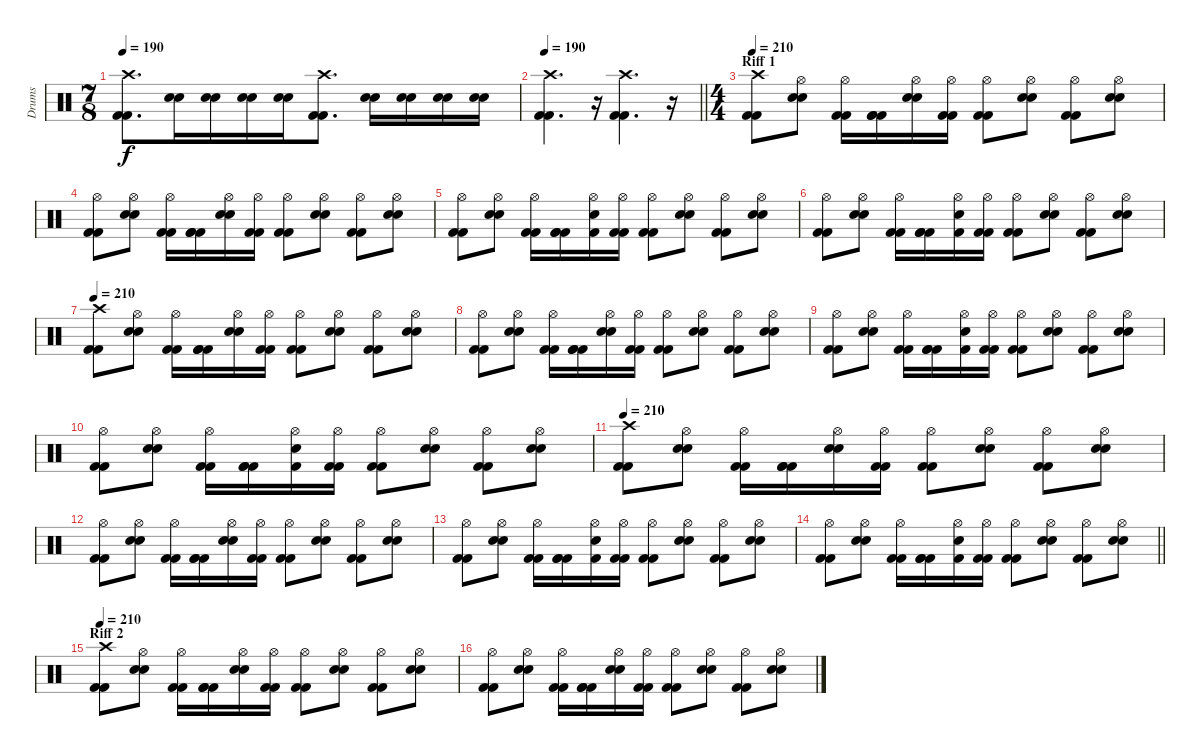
\track ("Drums" "Drums") {instrument percussion}
\staff {score}
\articulation defaults
\ts (7 8)
\tempo 190
\clef neutral
\ks c
("Crash high (hit)" "Kick (hit) 2" "Kick (hit) 2").8{d dy f} ("Snare (hit) 2" "Snare (hit) 2").16 ("Snare (hit) 2" "Snare (hit) 2").16 ("Snare (hit) 2" "Snare (hit) 2").16 ("Snare (hit) 2" "Snare (hit) 2").16 ("Crash high (hit)" "Kick (hit) 2" "Kick (hit) 2").8{d} ("Snare (hit) 2" "Snare (hit) 2").16 ("Snare (hit) 2" "Snare (hit) 2").16 ("Snare (hit) 2" "Snare (hit) 2").16 ("Snare (hit) 2" "Snare (hit) 2").16 |
\tempo 190
\barLineRight lightlight
("Crash high (hit)" "Kick (hit) 2" "Kick (hit) 2").4{d} r.16 ("Crash high (hit)" "Kick (hit) 2" "Kick (hit) 2").4{d} r.16 |
\ts (4 4)
\section ("" "Riff 1")
\tempo 210
("Crash high (hit)" "Kick (hit) 2" "Kick (hit) 2").8 ("Hi-Hat (open)" "Snare (hit) 2" "Snare (hit) 2").8 ("Hi-Hat (open)" "Kick (hit) 2" "Kick (hit) 2").16 ("Kick (hit) 2" "Kick (hit) 2" "Kick (hit) 2").16 ("Hi-Hat (open)" "Snare (hit) 2" "Snare (hit) 2").16 ("Hi-Hat (open)" "Kick (hit) 2" "Kick (hit) 2").16 ("Hi-Hat (open)" "Kick (hit) 2" "Kick (hit) 2").8 ("Hi-Hat (open)" "Snare (hit) 2" "Snare (hit) 2").8 ("Hi-Hat (open)" "Kick (hit) 2" "Kick (hit) 2").8 ("Hi-Hat (open)" "Snare (hit) 2" "Snare (hit) 2").8 |
("Hi-Hat (open)" "Kick (hit) 2" "Kick (hit) 2").8 ("Hi-Hat (open)" "Snare (hit) 2" "Snare (hit) 2").8 ("Hi-Hat (open)" "Kick (hit) 2" "Kick (hit) 2").16 ("Kick (hit) 2" "Kick (hit) 2" "Kick (hit) 2").16 ("Hi-Hat (open)" "Snare (hit) 2" "Snare (hit) 2").16 ("Hi-Hat (open)" "Kick (hit) 2" "Kick (hit) 2").16 ("Hi-Hat (open)" "Kick (hit) 2" "Kick (hit) 2").8 ("Hi-Hat (open)" "Snare (hit) 2" "Snare (hit) 2").8 ("Hi-Hat (open)" "Kick (hit) 2" "Kick (hit) 2").8 ("Hi-Hat (open)" "Snare (hit) 2" "Snare (hit) 2").8 |
("Hi-Hat (open)" "Kick (hit) 2" "Kick (hit) 2").8 ("Hi-Hat (open)" "Snare (hit) 2" "Snare (hit) 2").8 ("Hi-Hat (open)" "Kick (hit) 2" "Kick (hit) 2").16 ("Kick (hit) 2" "Kick (hit) 2" "Kick (hit) 2").16 ("Hi-Hat (open)" "Snare (hit) 2" "Kick (hit) 2").16 ("Hi-Hat (open)" "Kick (hit) 2" "Kick (hit) 2").16 ("Hi-Hat (open)" "Kick (hit) 2" "Kick (hit) 2").8 ("Hi-Hat (open)" "Snare (hit) 2" "Snare (hit) 2").8 ("Hi-Hat (open)" "Kick (hit) 2" "Kick (hit) 2").8 ("Hi-Hat (open)" "Snare (hit) 2" "Snare (hit) 2").8 |
("Hi-Hat (open)" "Kick (hit) 2" "Kick (hit) 2").8 ("Hi-Hat (open)" "Snare (hit) 2" "Snare (hit) 2").8 ("Hi-Hat (open)" "Kick (hit) 2" "Kick (hit) 2").16 ("Kick (hit) 2" "Kick (hit) 2" "Kick (hit) 2").16 ("Hi-Hat (open)" "Snare (hit) 2" "Kick (hit) 2").16 ("Hi-Hat (open)" "Kick (hit) 2" "Kick (hit) 2").16 ("Hi-Hat (open)" "Kick (hit) 2" "Kick (hit) 2").8 ("Hi-Hat (open)" "Snare (hit) 2" "Snare (hit) 2").8 ("Hi-Hat (open)" "Kick (hit) 2" "Kick (hit) 2").8 ("Hi-Hat (open)" "Snare (hit) 2" "Snare (hit) 2").8 |
\tempo 210
("Crash high (hit)" "Kick (hit) 2" "Kick (hit) 2").8 ("Hi-Hat (open)" "Snare (hit) 2" "Snare (hit) 2").8 ("Hi-Hat (open)" "Kick (hit) 2" "Kick (hit) 2").16 ("Kick (hit) 2" "Kick (hit) 2" "Kick (hit) 2").16 ("Hi-Hat (open)" "Snare (hit) 2" "Snare (hit) 2").16 ("Hi-Hat (open)" "Kick (hit) 2" "Kick (hit) 2").16 ("Hi-Hat (open)" "Kick (hit) 2" "Kick (hit) 2").8 ("Hi-Hat (open)" "Snare (hit) 2" "Snare (hit) 2").8 ("Hi-Hat (open)" "Kick (hit) 2" "Kick (hit) 2").8 ("Hi-Hat (open)" "Snare (hit) 2" "Snare (hit) 2").8 |
("Hi-Hat (open)" "Kick (hit) 2" "Kick (hit) 2").8 ("Hi-Hat (open)" "Snare (hit) 2" "Snare (hit) 2").8 ("Hi-Hat (open)" "Kick (hit) 2" "Kick (hit) 2").16 ("Kick (hit) 2" "Kick (hit) 2" "Kick (hit) 2").16 ("Hi-Hat (open)" "Snare (hit) 2" "Snare (hit) 2").16 ("Hi-Hat (open)" "Kick (hit) 2" "Kick (hit) 2").16 ("Hi-Hat (open)" "Kick (hit) 2" "Kick (hit) 2").8 ("Hi-Hat (open)" "Snare (hit) 2" "Snare (hit) 2").8 ("Hi-Hat (open)" "Kick (hit) 2" "Kick (hit) 2").8 ("Hi-Hat (open)" "Snare (hit) 2" "Snare (hit) 2").8 |
("Hi-Hat (open)" "Kick (hit) 2" "Kick (hit) 2").8 ("Hi-Hat (open)" "Snare (hit) 2" "Snare (hit) 2").8 ("Hi-Hat (open)" "Kick (hit) 2" "Kick (hit) 2").16 ("Kick (hit) 2" "Kick (hit) 2" "Kick (hit) 2").16 ("Hi-Hat (open)" "Snare (hit) 2" "Kick (hit) 2").16 ("Hi-Hat (open)" "Kick (hit) 2" "Kick (hit) 2").16 ("Hi-Hat (open)" "Kick (hit) 2" "Kick (hit) 2").8 ("Hi-Hat (open)" "Snare (hit) 2" "Snare (hit) 2").8 ("Hi-Hat (open)" "Kick (hit) 2" "Kick (hit) 2").8 ("Hi-Hat (open)" "Snare (hit) 2" "Snare (hit) 2").8 |
("Hi-Hat (open)" "Kick (hit) 2" "Kick (hit) 2").8 ("Hi-Hat (open)" "Snare (hit) 2" "Snare (hit) 2").8 ("Hi-Hat (open)" "Kick (hit) 2" "Kick (hit) 2").16 ("Kick (hit) 2" "Kick (hit) 2" "Kick (hit) 2").16 ("Hi-Hat (open)" "Snare (hit) 2" "Kick (hit) 2").16 ("Hi-Hat (open)" "Kick (hit) 2" "Kick (hit) 2").16 ("Hi-Hat (open)" "Kick (hit) 2" "Kick (hit) 2").8 ("Hi-Hat (open)" "Snare (hit) 2" "Snare (hit) 2").8 ("Hi-Hat (open)" "Kick (hit) 2" "Kick (hit) 2").8 ("Hi-Hat (open)" "Snare (hit) 2" "Snare (hit) 2").8 |
\tempo 210
("Crash high (hit)" "Kick (hit) 2" "Kick (hit) 2").8 ("Hi-Hat (open)" "Snare (hit) 2" "Snare (hit) 2").8 ("Hi-Hat (open)" "Kick (hit) 2" "Kick (hit) 2").16 ("Kick (hit) 2" "Kick (hit) 2" "Kick (hit) 2").16 ("Hi-Hat (open)" "Snare (hit) 2" "Snare (hit) 2").16 ("Hi-Hat (open)" "Kick (hit) 2" "Kick (hit) 2").16 ("Hi-Hat (open)" "Kick (hit) 2" "Kick (hit) 2").8 ("Hi-Hat (open)" "Snare (hit) 2" "Snare (hit) 2").8 ("Hi-Hat (open)" "Kick (hit) 2" "Kick (hit) 2").8 ("Hi-Hat (open)" "Snare (hit) 2" "Snare (hit) 2").8 |
("Hi-Hat (open)" "Kick (hit) 2" "Kick (hit) 2").8 ("Hi-Hat (open)" "Snare (hit) 2" "Snare (hit) 2").8 ("Hi-Hat (open)" "Kick (hit) 2" "Kick (hit) 2").16 ("Kick (hit) 2" "Kick (hit) 2" "Kick (hit) 2").16 ("Hi-Hat (open)" "Snare (hit) 2" "Snare (hit) 2").16 ("Hi-Hat (open)" "Kick (hit) 2" "Kick (hit) 2").16 ("Hi-Hat (open)" "Kick (hit) 2" "Kick (hit) 2").8 ("Hi-Hat (open)" "Snare (hit) 2" "Snare (hit) 2").8 ("Hi-Hat (open)" "Kick (hit) 2" "Kick (hit) 2").8 ("Hi-Hat (open)" "Snare (hit) 2" "Snare (hit) 2").8 |
("Hi-Hat (open)" "Kick (hit) 2" "Kick (hit) 2").8 ("Hi-Hat (open)" "Snare (hit) 2" "Snare (hit) 2").8 ("Hi-Hat (open)" "Kick (hit) 2" "Kick (hit) 2").16 ("Kick (hit) 2" "Kick (hit) 2" "Kick (hit) 2").16 ("Hi-Hat (open)" "Snare (hit) 2" "Kick (hit) 2").16 ("Hi-Hat (open)" "Kick (hit) 2" "Kick (hit) 2").16 ("Hi-Hat (open)" "Kick (hit) 2" "Kick (hit) 2").8 ("Hi-Hat (open)" "Snare (hit) 2" "Snare (hit) 2").8 ("Hi-Hat (open)" "Kick (hit) 2" "Kick (hit) 2").8 ("Hi-Hat (open)" "Snare (hit) 2" "Snare (hit) 2").8 |
\barLineRight lightlight
("Hi-Hat (open)" "Kick (hit) 2" "Kick (hit) 2").8 ("Hi-Hat (open)" "Snare (hit) 2" "Snare (hit) 2").8 ("Hi-Hat (open)" "Kick (hit) 2" "Kick (hit) 2").16 ("Kick (hit) 2" "Kick (hit) 2" "Kick (hit) 2").16 ("Hi-Hat (open)" "Snare (hit) 2" "Kick (hit) 2").16 ("Hi-Hat (open)" "Kick (hit) 2" "Kick (hit) 2").16 ("Hi-Hat (open)" "Kick (hit) 2" "Kick (hit) 2").8 ("Hi-Hat (open)" "Snare (hit) 2" "Snare (hit) 2").8 ("Hi-Hat (open)" "Kick (hit) 2" "Kick (hit) 2").8 ("Hi-Hat (open)" "Snare (hit) 2" "Snare (hit) 2").8 |
\section ("" "Riff 2")
\tempo 210
("Crash high (hit)" "Kick (hit) 2" "Kick (hit) 2").8 ("Hi-Hat (open)" "Snare (hit) 2" "Snare (hit) 2").8 ("Hi-Hat (open)" "Kick (hit) 2" "Kick (hit) 2").16 ("Kick (hit) 2" "Kick (hit) 2" "Kick (hit) 2").16 ("Hi-Hat (open)" "Snare (hit) 2" "Snare (hit) 2").16 ("Hi-Hat (open)" "Kick (hit) 2" "Kick (hit) 2").16 ("Hi-Hat (open)" "Kick (hit) 2" "Kick (hit) 2").8 ("Hi-Hat (open)" "Snare (hit) 2" "Snare (hit) 2").8 ("Hi-Hat (open)" "Kick (hit) 2" "Kick (hit) 2").8 ("Hi-Hat (open)" "Snare (hit) 2" "Snare (hit) 2").8 |
("Hi-Hat (open)" "Kick (hit) 2" "Kick (hit) 2").8 ("Hi-Hat (open)" "Snare (hit) 2" "Snare (hit) 2").8 ("Hi-Hat (open)" "Kick (hit) 2" "Kick (hit) 2").16 ("Kick (hit) 2" "Kick (hit) 2" "Kick (hit) 2").16 ("Hi-Hat (open)" "Snare (hit) 2" "Snare (hit) 2").16 ("Hi-Hat (open)" "Kick (hit) 2" "Kick (hit) 2").16 ("Hi-Hat (open)" "Kick (hit) 2" "Kick (hit) 2").8 ("Hi-Hat (open)" "Snare (hit) 2" "Snare (hit) 2").8 ("Hi-Hat (open)" "Kick (hit) 2" "Kick (hit) 2").8 ("Hi-Hat (open)" "Snare (hit) 2" "Snare (hit) 2").8
